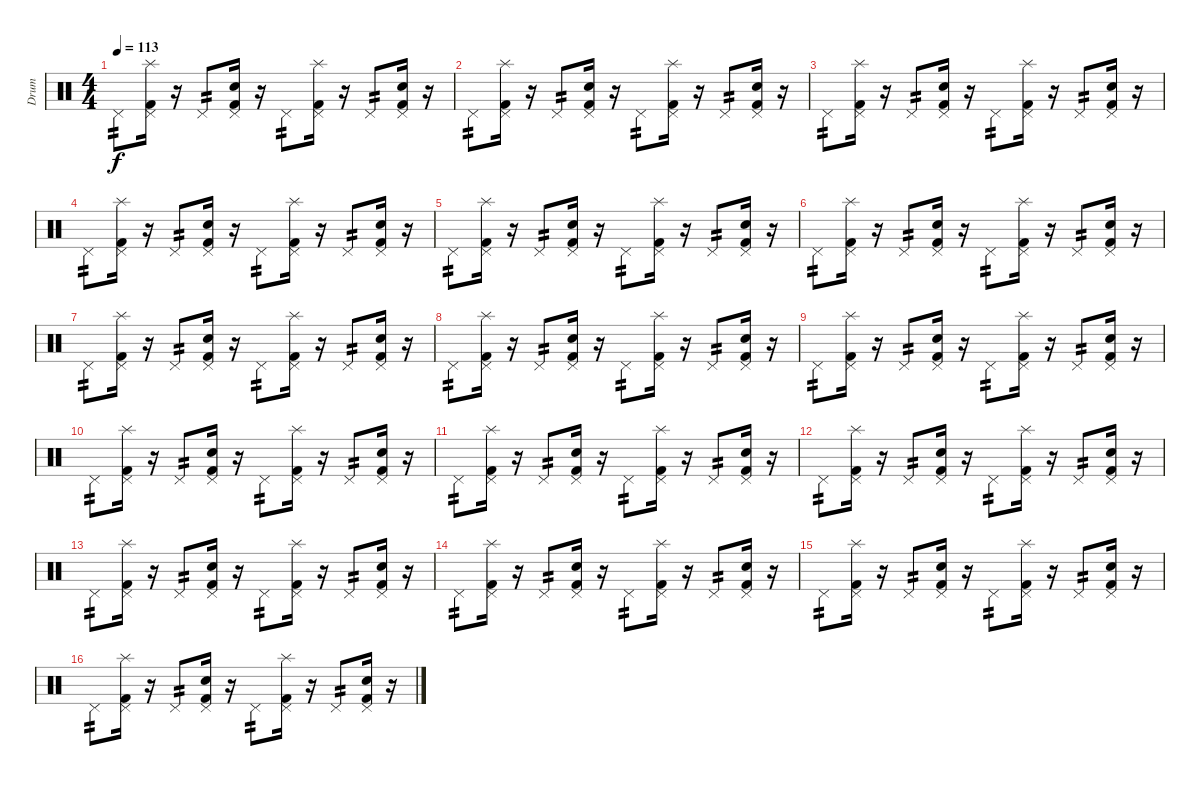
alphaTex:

\track ("Drum" "Drum") {instrument percussion}
\staff {score}
\articulation defaults
\ts (4 4)
\tempo 113
\clef neutral
\ks c "Pedal Hi-Hat (hit)".8{tp 2 dy f}
("Pedal Hi-Hat (hit)" "Kick (hit) 2" "Splash (hit)").16 r.16 "Pedal Hi-Hat (hit)".8{tp 2} ("Pedal Hi-Hat (hit)" "Kick (hit) 2" "Snare (hit) 2").16 r.16 "Pedal Hi-Hat (hit)".8{tp 2} ("Pedal Hi-Hat (hit)" "Kick (hit) 2" "Splash (hit)").16 r.16 "Pedal Hi-Hat (hit)".8{tp 2} ("Pedal Hi-Hat (hit)" "Kick (hit) 2" "Snare (hit) 2").16 r.16 |
"Pedal Hi-Hat (hit)".8{tp 2} ("Pedal Hi-Hat (hit)" "Kick (hit) 2" "Splash (hit)").16 r.16 "Pedal Hi-Hat (hit)".8{tp 2} ("Pedal Hi-Hat (hit)" "Kick (hit) 2" "Snare (hit) 2").16 r.16 "Pedal Hi-Hat (hit)".8{tp 2} ("Pedal Hi-Hat (hit)" "Kick (hit) 2" "Splash (hit)").16 r.16 "Pedal Hi-Hat (hit)".8{tp 2} ("Pedal Hi-Hat (hit)" "Kick (hit) 2" "Snare (hit) 2").16 r.16 |
"Pedal Hi-Hat (hit)".8{tp 2} ("Pedal Hi-Hat (hit)" "Kick (hit) 2" "Splash (hit)").16 r.16 "Pedal Hi-Hat (hit)".8{tp 2} ("Pedal Hi-Hat (hit)" "Kick (hit) 2" "Snare (hit) 2").16 r.16 "Pedal Hi-Hat (hit)".8{tp 2} ("Pedal Hi-Hat (hit)" "Kick (hit) 2" "Splash (hit)").16 r.16 "Pedal Hi-Hat (hit)".8{tp 2} ("Pedal Hi-Hat (hit)" "Kick (hit) 2" "Snare (hit) 2").16 r.16 |
"Pedal Hi-Hat (hit)".8{tp 2} ("Pedal Hi-Hat (hit)" "Kick (hit) 2" "Splash (hit)").16 r.16 "Pedal Hi-Hat (hit)".8{tp 2} ("Pedal Hi-Hat (hit)" "Kick (hit) 2" "Snare (hit) 2").16 r.16 "Pedal Hi-Hat (hit)".8{tp 2} ("Pedal Hi-Hat (hit)" "Kick (hit) 2" "Splash (hit)").16 r.16 "Pedal Hi-Hat (hit)".8{tp 2} ("Pedal Hi-Hat (hit)" "Kick (hit) 2" "Snare (hit) 2").16 r.16 |
"Pedal Hi-Hat (hit)".8{tp 2} ("Pedal Hi-Hat (hit)" "Kick (hit) 2" "Splash (hit)").16 r.16 "Pedal Hi-Hat (hit)".8{tp 2} ("Pedal Hi-Hat (hit)" "Kick (hit) 2" "Snare (hit) 2").16 r.16 "Pedal Hi-Hat (hit)".8{tp 2} ("Pedal Hi-Hat (hit)" "Kick (hit) 2" "Splash (hit)").16 r.16 "Pedal Hi-Hat (hit)".8{tp 2} ("Pedal Hi-Hat (hit)" "Kick (hit) 2" "Snare (hit) 2").16 r.16 |
"Pedal Hi-Hat (hit)".8{tp 2} ("Pedal Hi-Hat (hit)" "Kick (hit) 2" "Splash (hit)").16 r.16 "Pedal Hi-Hat (hit)".8{tp 2} ("Pedal Hi-Hat (hit)" "Kick (hit) 2" "Snare (hit) 2").16 r.16 "Pedal Hi-Hat (hit)".8{tp 2} ("Pedal Hi-Hat (hit)" "Kick (hit) 2" "Splash (hit)").16 r.16 "Pedal Hi-Hat (hit)".8{tp 2} ("Pedal Hi-Hat (hit)" "Kick (hit) 2" "Snare (hit) 2").16 r.16 |
"Pedal Hi-Hat (hit)".8{tp 2} ("Pedal Hi-Hat (hit)" "Kick (hit) 2" "Splash (hit)").16 r.16 "Pedal Hi-Hat (hit)".8{tp 2} ("Pedal Hi-Hat (hit)" "Kick (hit) 2" "Snare (hit) 2").16 r.16 "Pedal Hi-Hat (hit)".8{tp 2} ("Pedal Hi-Hat (hit)" "Kick (hit) 2" "Splash (hit)").16 r.16 "Pedal Hi-Hat (hit)".8{tp 2} ("Pedal Hi-Hat (hit)" "Kick (hit) 2" "Snare (hit) 2").16 r.16 |
"Pedal Hi-Hat (hit)".8{tp 2} ("Pedal Hi-Hat (hit)" "Kick (hit) 2" "Splash (hit)").16 r.16 "Pedal Hi-Hat (hit)".8{tp 2} ("Pedal Hi-Hat (hit)" "Kick (hit) 2" "Snare (hit) 2").16 r.16 "Pedal Hi-Hat (hit)".8{tp 2} ("Pedal Hi-Hat (hit)" "Kick (hit) 2" "Splash (hit)").16 r.16 "Pedal Hi-Hat (hit)".8{tp 2} ("Pedal Hi-Hat (hit)" "Kick (hit) 2" "Snare (hit) 2").16 r.16 |
"Pedal Hi-Hat (hit)".8{tp 2} ("Pedal Hi-Hat (hit)" "Kick (hit) 2" "Splash (hit)").16 r.16 "Pedal Hi-Hat (hit)".8{tp 2} ("Pedal Hi-Hat (hit)" "Kick (hit) 2" "Snare (hit) 2").16 r.16 "Pedal Hi-Hat (hit)".8{tp 2} ("Pedal Hi-Hat (hit)" "Kick (hit) 2" "Splash (hit)").16 r.16 "Pedal Hi-Hat (hit)".8{tp 2} ("Pedal Hi-Hat (hit)" "Kick (hit) 2" "Snare (hit) 2").16 r.16 |
"Pedal Hi-Hat (hit)".8{tp 2} ("Pedal Hi-Hat (hit)" "Kick (hit) 2" "Splash (hit)").16 r.16 "Pedal Hi-Hat (hit)".8{tp 2} ("Pedal Hi-Hat (hit)" "Kick (hit) 2" "Snare (hit) 2").16 r.16 "Pedal Hi-Hat (hit)".8{tp 2} ("Pedal Hi-Hat (hit)" "Kick (hit) 2" "Splash (hit)").16 r.16 "Pedal Hi-Hat (hit)".8{tp 2} ("Pedal Hi-Hat (hit)" "Kick (hit) 2" "Snare (hit) 2").16 r.16 |
"Pedal Hi-Hat (hit)".8{tp 2} ("Pedal Hi-Hat (hit)" "Kick (hit) 2" "Splash (hit)").16 r.16 "Pedal Hi-Hat (hit)".8{tp 2} ("Pedal Hi-Hat (hit)" "Kick (hit) 2" "Snare (hit) 2").16 r.16 "Pedal Hi-Hat (hit)".8{tp 2} ("Pedal Hi-Hat (hit)" "Kick (hit) 2" "Splash (hit)").16 r.16 "Pedal Hi-Hat (hit)".8{tp 2} ("Pedal Hi-Hat (hit)" "Kick (hit) 2" "Snare (hit) 2").16 r.16 |
"Pedal Hi-Hat (hit)".8{tp 2} ("Pedal Hi-Hat (hit)" "Kick (hit) 2" "Splash (hit)").16 r.16 "Pedal Hi-Hat (hit)".8{tp 2} ("Pedal Hi-Hat (hit)" "Kick (hit) 2" "Snare (hit) 2").16 r.16 "Pedal Hi-Hat (hit)".8{tp 2} ("Pedal Hi-Hat (hit)" "Kick (hit) 2" "Splash (hit)").16 r.16 "Pedal Hi-Hat (hit)".8{tp 2} ("Pedal Hi-Hat (hit)" "Kick (hit) 2" "Snare (hit) 2").16 r.16 |
"Pedal Hi-Hat (hit)".8{tp 2} ("Pedal Hi-Hat (hit)" "Kick (hit) 2" "Splash (hit)").16 r.16 "Pedal Hi-Hat (hit)".8{tp 2} ("Pedal Hi-Hat (hit)" "Kick (hit) 2" "Snare (hit) 2").16 r.16 "Pedal Hi-Hat (hit)".8{tp 2} ("Pedal Hi-Hat (hit)" "Kick (hit) 2" "Splash (hit)").16 r.16 "Pedal Hi-Hat (hit)".8{tp 2} ("Pedal Hi-Hat (hit)" "Kick (hit) 2" "Snare (hit) 2").16 r.16 |
"Pedal Hi-Hat (hit)".8{tp 2} ("Pedal Hi-Hat (hit)" "Kick (hit) 2" "Splash (hit)").16 r.16 "Pedal Hi-Hat (hit)".8{tp 2} ("Pedal Hi-Hat (hit)" "Kick (hit) 2" "Snare (hit) 2").16 r.16 "Pedal Hi-Hat (hit)".8{tp 2} ("Pedal Hi-Hat (hit)" "Kick (hit) 2" "Splash (hit)").16 r.16 "Pedal Hi-Hat (hit)".8{tp 2} ("Pedal Hi-Hat (hit)" "Kick (hit) 2" "Snare (hit) 2").16 r.16 |
"Pedal Hi-Hat (hit)".8{tp 2} ("Pedal Hi-Hat (hit)" "Kick (hit) 2" "Splash (hit)").16 r.16 "Pedal Hi-Hat (hit)".8{tp 2} ("Pedal Hi-Hat (hit)" "Kick (hit) 2" "Snare (hit) 2").16 r.16 "Pedal Hi-Hat (hit)".8{tp 2} ("Pedal Hi-Hat (hit)" "Kick (hit) 2" "Splash (hit)").16 r.16 "Pedal Hi-Hat (hit)".8{tp 2} ("Pedal Hi-Hat (hit)" "Kick (hit) 2" "Snare (hit) 2").16 r.16 |
"Pedal Hi-Hat (hit)".8{tp 2} ("Pedal Hi-Hat (hit)" "Kick (hit) 2" "Splash (hit)").16 r.16 "Pedal Hi-Hat (hit)".8{tp 2} ("Pedal Hi-Hat (hit)" "Kick (hit) 2" "Snare (hit) 2").16 r.16 "Pedal Hi-Hat (hit)".8{tp 2} ("Pedal Hi-Hat (hit)" "Kick (hit) 2" "Splash (hit)").16 r.16 "Pedal Hi-Hat (hit)".8{tp 2} ("Pedal Hi-Hat (hit)" "Kick (hit) 2" "Snare (hit) 2").16 r.16
